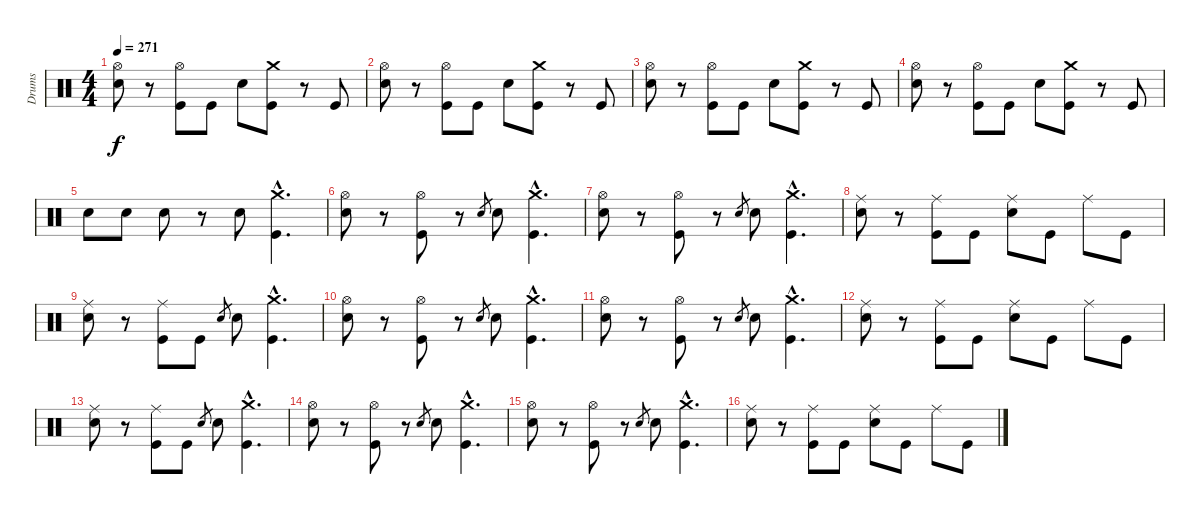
\track ("Drums" "Drums") {instrument percussion}
\staff {score}
\articulation defaults
\ts (4 4)
\tempo 271
\clef neutral
\ks c
("Hi-Hat (open)" "Electric Snare (hit)").8{dy f} r.8 ("Hi-Hat (open)" "Kick (hit)").8 "Kick (hit)".8 "Electric Snare (hit)".8 ("Crash medium (hit)" "Kick (hit)").8 r.8 "Kick (hit)".8 |
("Hi-Hat (open)" "Electric Snare (hit)").8 r.8 ("Hi-Hat (open)" "Kick (hit)").8 "Kick (hit)".8 "Electric Snare (hit)".8 ("Crash medium (hit)" "Kick (hit)").8 r.8 "Kick (hit)".8 |
("Hi-Hat (open)" "Electric Snare (hit)").8 r.8 ("Hi-Hat (open)" "Kick (hit)").8 "Kick (hit)".8 "Electric Snare (hit)".8 ("Crash medium (hit)" "Kick (hit)").8 r.8 "Kick (hit)".8 |
("Hi-Hat (open)" "Electric Snare (hit)").8 r.8 ("Hi-Hat (open)" "Kick (hit)").8 "Kick (hit)".8 "Electric Snare (hit)".8 ("Crash medium (hit)" "Kick (hit)").8 r.8 "Kick (hit)".8 |
"Electric Snare (hit)".8 "Electric Snare (hit)".8 "Electric Snare (hit)".8 r.8 "Electric Snare (hit)".8 ("Crash medium (hit)"{hac} "Kick (hit)"{hac}).4{d} |
("Hi-Hat (open)" "Electric Snare (hit)").8 r.8 ("Hi-Hat (open)" "Kick (hit)").8 r.8 "Electric Snare (hit)".8{gr} "Electric Snare (hit)".8 ("Crash medium (hit)"{hac} "Kick (hit)"{hac}).4{d} |
("Hi-Hat (open)" "Electric Snare (hit)").8 r.8 ("Hi-Hat (open)" "Kick (hit)").8 r.8 "Electric Snare (hit)".8{gr} "Electric Snare (hit)".8 ("Crash medium (hit)"{hac} "Kick (hit)"{hac}).4{d} |
("Ride (middle)" "Electric Snare (hit)").8 r.8 ("Ride (middle)" "Kick (hit)").8 "Kick (hit)".8 ("Ride (middle)" "Electric Snare (hit)").8 "Kick (hit)".8 "Ride (middle)".8 "Kick (hit)".8 |
("Ride (middle)" "Electric Snare (hit)").8 r.8 ("Ride (middle)" "Kick (hit)").8 "Kick (hit)".8 "Electric Snare (hit)".8{gr} "Electric Snare (hit)".8 ("Crash medium (hit)"{hac} "Kick (hit)"{hac}).4{d} |
("Hi-Hat (open)" "Electric Snare (hit)").8 r.8 ("Hi-Hat (open)" "Kick (hit)").8 r.8 "Electric Snare (hit)".8{gr} "Electric Snare (hit)".8 ("Crash medium (hit)"{hac} "Kick (hit)"{hac}).4{d} |
("Hi-Hat (open)" "Electric Snare (hit)").8 r.8 ("Hi-Hat (open)" "Kick (hit)").8 r.8 "Electric Snare (hit)".8{gr} "Electric Snare (hit)".8 ("Crash medium (hit)"{hac} "Kick (hit)"{hac}).4{d} |
("Ride (middle)" "Electric Snare (hit)").8 r.8 ("Ride (middle)" "Kick (hit)").8 "Kick (hit)".8 ("Ride (middle)" "Electric Snare (hit)").8 "Kick (hit)".8 "Ride (middle)".8 "Kick (hit)".8 |
("Ride (middle)" "Electric Snare (hit)").8 r.8 ("Ride (middle)" "Kick (hit)").8 "Kick (hit)".8 "Electric Snare (hit)".8{gr} "Electric Snare (hit)".8 ("Crash medium (hit)"{hac} "Kick (hit)"{hac}).4{d} |
("Hi-Hat (open)" "Electric Snare (hit)").8 r.8 ("Hi-Hat (open)" "Kick (hit)").8 r.8 "Electric Snare (hit)".8{gr} "Electric Snare (hit)".8 ("Crash medium (hit)"{hac} "Kick (hit)"{hac}).4{d} |
("Hi-Hat (open)" "Electric Snare (hit)").8 r.8 ("Hi-Hat (open)" "Kick (hit)").8 r.8 "Electric Snare (hit)".8{gr} "Electric Snare (hit)".8 ("Crash medium (hit)"{hac} "Kick (hit)"{hac}).4{d} |
("Ride (middle)" "Electric Snare (hit)").8 r.8 ("Ride (middle)" "Kick (hit)").8 "Kick (hit)".8 ("Ride (middle)" "Electric Snare (hit)").8 "Kick (hit)".8 "Ride (middle)".8 "Kick (hit)".8
